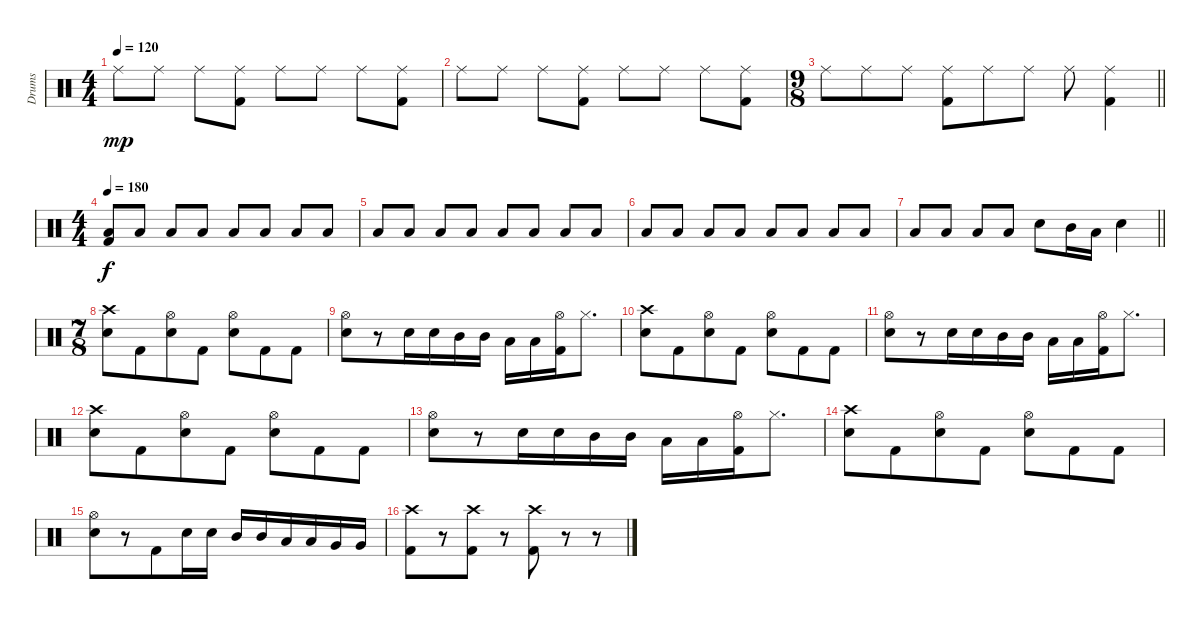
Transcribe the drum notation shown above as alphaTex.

\track ("Drums" "Drums") {instrument percussion}
\staff {score}
\articulation defaults
\ts (4 4)
\tempo 120
\clef neutral
\ks c "Ride (middle)".8{dy mp} "Ride (middle)".8 "Ride (middle)".8
("Ride (middle)" "Kick (hit) 2").8 "Ride (middle)".8 "Ride (middle)".8 "Ride (middle)".8 ("Ride (middle)" "Kick (hit) 2").8 |
"Ride (middle)".8 "Ride (middle)".8 "Ride (middle)".8 ("Ride (middle)" "Kick (hit) 2").8 "Ride (middle)".8 "Ride (middle)".8 "Ride (middle)".8 ("Ride (middle)" "Kick (hit) 2").8 |
\ts (9 8)
\barLineRight lightlight "Ride (middle)".8 "Ride (middle)".8 "Ride (middle)".8
("Ride (middle)" "Kick (hit) 2").8 "Ride (middle)".8 "Ride (middle)".8 "Ride (middle)".8 ("Ride (middle)" "Kick (hit) 2").4 |
\ts (4 4)
\tempo 180
("Low Floor Tom (hit)" "Kick (hit) 2").8{dy f volume 12} "Low Floor Tom (hit)".8{volume 8} "Low Floor Tom (hit)".8{volume 12} "Low Floor Tom (hit)".8 "Low Floor Tom (hit)".8 "Low Floor Tom (hit)".8 "Low Floor Tom (hit)".8 "Low Floor Tom (hit)".8 |
"Low Floor Tom (hit)".8 "Low Floor Tom (hit)".8 "Low Floor Tom (hit)".8 "Low Floor Tom (hit)".8 "Low Floor Tom (hit)".8 "Low Floor Tom (hit)".8 "Low Floor Tom (hit)".8 "Low Floor Tom (hit)".8 |
"Low Floor Tom (hit)".8 "Low Floor Tom (hit)".8 "Low Floor Tom (hit)".8 "Low Floor Tom (hit)".8 "Low Floor Tom (hit)".8 "Low Floor Tom (hit)".8 "Low Floor Tom (hit)".8 "Low Floor Tom (hit)".8 |
\barLineRight lightlight "Low Floor Tom (hit)".8 "Low Floor Tom (hit)".8 "Low Floor Tom (hit)".8 "Low Floor Tom (hit)".8 "Snare (hit) 2".8 "Mid Tom (hit)".16 "Low Tom (hit)".16 "Snare (hit) 2".4
|
\ts (7 8)
("Crash high (hit)" "Snare (hit) 2").8 "Kick (hit) 2".8 ("Hi-Hat (open)" "Snare (hit) 2").8 "Kick (hit) 2".8 ("Hi-Hat (open)" "Snare (hit) 2").8 "Kick (hit) 2".8 "Kick (hit) 2".8 |
("Hi-Hat (open)" "Snare (hit) 2").8 r.8 "Snare (hit) 2".16 "Snare (hit) 2".16 "Mid Tom (hit)".16 "Mid Tom (hit)".16 "Low Tom (hit)".16 "Low Tom (hit)".16 ("Hi-Hat (open)" "Kick (hit) 2").16 "Hi-Hat (closed)".8{d} |
("Crash high (hit)" "Snare (hit) 2").8 "Kick (hit) 2".8 ("Hi-Hat (open)" "Snare (hit) 2").8 "Kick (hit) 2".8 ("Hi-Hat (open)" "Snare (hit) 2").8 "Kick (hit) 2".8 "Kick (hit) 2".8 |
("Hi-Hat (open)" "Snare (hit) 2").8 r.8 "Snare (hit) 2".16 "Snare (hit) 2".16 "Mid Tom (hit)".16 "Mid Tom (hit)".16 "Low Tom (hit)".16 "Low Tom (hit)".16 ("Hi-Hat (open)" "Kick (hit) 2").16 "Hi-Hat (closed)".8{d} |
("Crash high (hit)" "Snare (hit) 2").8 "Kick (hit) 2".8 ("Hi-Hat (open)" "Snare (hit) 2").8 "Kick (hit) 2".8 ("Hi-Hat (open)" "Snare (hit) 2").8 "Kick (hit) 2".8 "Kick (hit) 2".8 |
("Hi-Hat (open)" "Snare (hit) 2").8 r.8 "Snare (hit) 2".16 "Snare (hit) 2".16 "Mid Tom (hit)".16 "Mid Tom (hit)".16 "Low Tom (hit)".16 "Low Tom (hit)".16 ("Hi-Hat (open)" "Kick (hit) 2").16 "Hi-Hat (closed)".8{d} |
("Crash high (hit)" "Snare (hit) 2").8 "Kick (hit) 2".8 ("Hi-Hat (open)" "Snare (hit) 2").8 "Kick (hit) 2".8 ("Hi-Hat (open)" "Snare (hit) 2").8 "Kick (hit) 2".8 "Kick (hit) 2".8 |
("Hi-Hat (open)" "Snare (hit) 2").8 r.8 "Kick (hit) 2".8 "Snare (hit) 2".16 "Snare (hit) 2".16 "Mid Tom (hit)".16 "Mid Tom (hit)".16 "Low Tom (hit)".16 "Low Tom (hit)".16 "Very Low Tom (hit)".16 "Very Low Tom (hit)".16 |
("Crash high (hit)" "Kick (hit) 2").8 r.8 ("Crash high (hit)" "Kick (hit) 2").8 r.8 ("Crash high (hit)" "Kick (hit) 2").8 r.8 r.8
